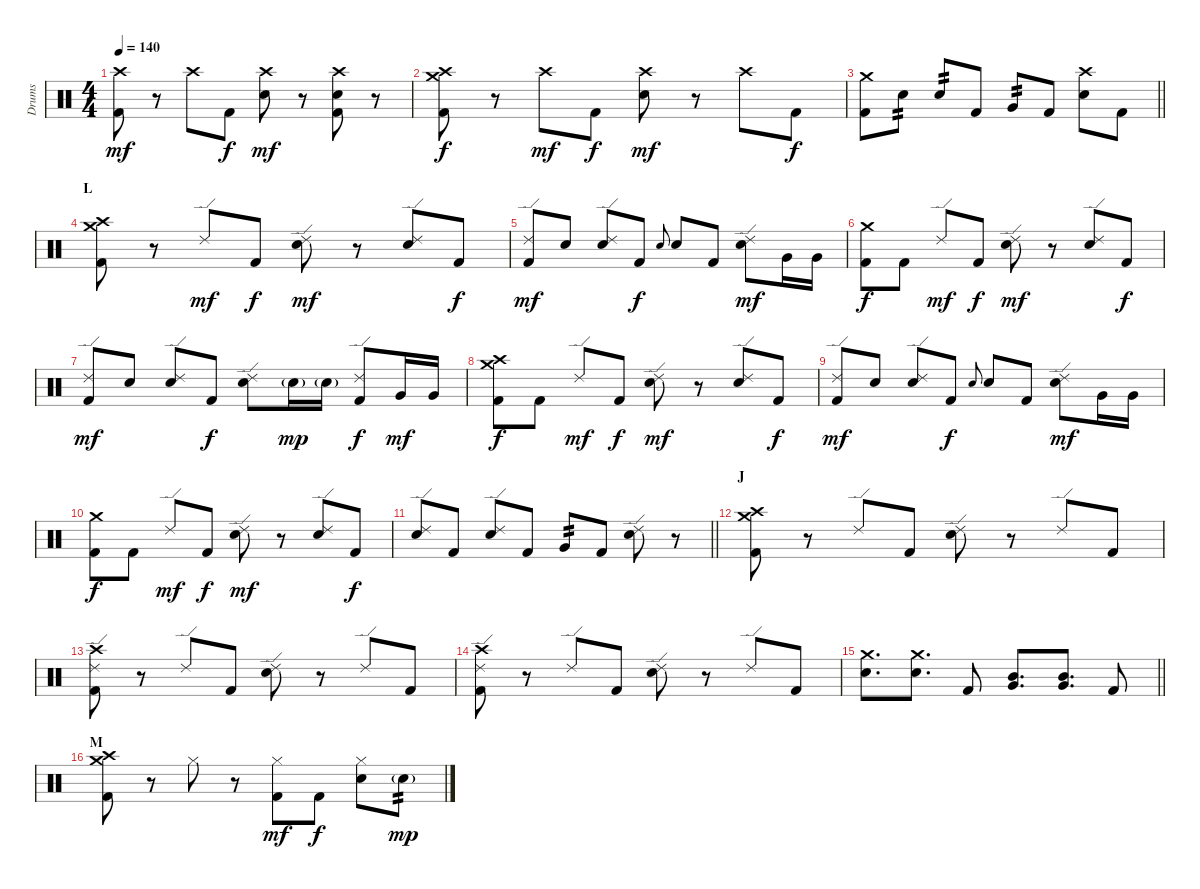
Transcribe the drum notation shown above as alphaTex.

\track ("Drums" "Drums") {instrument percussion}
\staff {score}
\articulation defaults
\ts (4 4)
\tempo 140
\clef neutral
\ks c
("Crash high (hit)" "Kick (hit) 2").8{dy mf} r.8 "Crash high (hit)".8 "Kick (hit) 2".8{dy f} ("Crash high (hit)" "Snare (hit) 2").8{dy mf} r.8 ("Crash high (hit)" "Snare (hit) 2" "Kick (hit) 2").8 r.8 |
("Crash high (hit)" "Crash medium (hit)" "Kick (hit) 2").8{dy f} r.8 "Crash high (hit)".8{dy mf} "Kick (hit) 2".8{dy f} ("Crash high (hit)" "Snare (hit) 2").8{dy mf} r.8 "Crash high (hit)".8 "Kick (hit) 2".8{dy f} |
\barLineRight lightlight
("Crash medium (hit)" "Kick (hit) 2").8 "Snare (hit) 2".8{tp 2} "Snare (hit) 2".8{tp 2} "Kick (hit) 2".8 "Very Low Tom (hit)".8{tp 2} "Kick (hit) 2".8 ("Crash high (hit)" "Snare (hit) 2").8 "Kick (hit) 2".8 |
\section ("" "L")
("Crash medium (hit)" "Crash high (hit)" "Kick (hit) 2").8 r.8 "Ride (edge) 2".8{dy mf} "Kick (hit) 2".8{dy f} ("Ride (edge) 2" "Snare (hit) 2").8{dy mf} r.8 ("Ride (edge) 2" "Snare (hit) 2").8 "Kick (hit) 2".8{dy f} |
("Ride (edge) 2" "Kick (hit) 2").8{dy mf} "Snare (hit) 2".8 ("Ride (edge) 2" "Snare (hit) 2").8 "Kick (hit) 2".8{dy f} "Snare (hit) 2".8{gr onbeat} "Snare (hit) 2".8 "Kick (hit) 2".8 ("Ride (edge) 2" "Snare (hit) 2").8{dy mf} "Very Low Tom (hit)".16 "Very Low Tom (hit)".16 |
("Crash medium (hit)" "Kick (hit) 2").8{dy f} "Kick (hit) 2".8 "Ride (edge) 2".8{dy mf} "Kick (hit) 2".8{dy f} ("Ride (edge) 2" "Snare (hit) 2").8{dy mf} r.8 ("Ride (edge) 2" "Snare (hit) 2").8 "Kick (hit) 2".8{dy f} |
("Ride (edge) 2" "Kick (hit) 2").8{dy mf} "Snare (hit) 2".8 ("Ride (edge) 2" "Snare (hit) 2").8 "Kick (hit) 2".8{dy f} ("Ride (edge) 2" "Snare (hit) 2").8 "Snare (hit) 2"{g}.16{dy mp} "Snare (hit) 2"{g}.16 ("Ride (edge) 2" "Kick (hit) 2").8{dy f} "Very Low Tom (hit)".16{dy mf} "Very Low Tom (hit)".16 |
("Crash medium (hit)" "Crash high (hit)" "Kick (hit) 2").8{dy f} "Kick (hit) 2".8 "Ride (edge) 2".8{dy mf} "Kick (hit) 2".8{dy f} ("Ride (edge) 2" "Snare (hit) 2").8{dy mf} r.8 ("Ride (edge) 2" "Snare (hit) 2").8 "Kick (hit) 2".8{dy f} |
("Ride (edge) 2" "Kick (hit) 2").8{dy mf} "Snare (hit) 2".8 ("Ride (edge) 2" "Snare (hit) 2").8 "Kick (hit) 2".8{dy f} "Snare (hit) 2".8{gr onbeat} "Snare (hit) 2".8 "Kick (hit) 2".8 ("Ride (edge) 2" "Snare (hit) 2").8{dy mf} "Very Low Tom (hit)".16 "Very Low Tom (hit)".16 |
("Crash medium (hit)" "Kick (hit) 2").8{dy f} "Kick (hit) 2".8 "Ride (edge) 2".8{dy mf} "Kick (hit) 2".8{dy f} ("Ride (edge) 2" "Snare (hit) 2").8{dy mf} r.8 ("Ride (edge) 2" "Snare (hit) 2").8 "Kick (hit) 2".8{dy f} |
\barLineRight lightlight
("Ride (edge) 2" "Snare (hit) 2").8 "Kick (hit) 2".8 ("Ride (edge) 2" "Snare (hit) 2").8 "Kick (hit) 2".8 "Very Low Tom (hit)".8{tp 2} "Kick (hit) 2".8 ("Ride (edge) 2" "Snare (hit) 2").8 r.8 |
\section ("" "J")
("Crash medium (hit)" "Crash high (hit)" "Kick (hit) 2").8 r.8 "Ride (edge) 2".8 "Kick (hit) 2".8 ("Ride (edge) 2" "Snare (hit) 2").8 r.8 "Ride (edge) 2".8 "Kick (hit) 2".8 |
("Ride (edge) 2" "Crash high (hit)" "Kick (hit) 2").8 r.8 "Ride (edge) 2".8 "Kick (hit) 2".8 ("Ride (edge) 2" "Snare (hit) 2").8 r.8 "Ride (edge) 2".8 "Kick (hit) 2".8 |
("Ride (edge) 2" "Crash high (hit)" "Kick (hit) 2").8 r.8 "Ride (edge) 2".8 "Kick (hit) 2".8 ("Ride (edge) 2" "Snare (hit) 2").8 r.8 "Ride (edge) 2".8 "Kick (hit) 2".8 |
\barLineRight lightlight
("Crash medium (hit)" "Snare (hit) 2").8{d} ("Crash medium (hit)" "Snare (hit) 2").8{d} "Kick (hit) 2".8 ("Mid Tom (hit)" "Very Low Tom (hit)").8{d bu 60} ("Mid Tom (hit)" "Very Low Tom (hit)").8{d bu 60} "Kick (hit) 2".8 |
\section ("" "M")
("Crash high (hit)" "Crash medium (hit)" "Kick (hit) 2").8 r.8 "Hi-Hat (closed)".8 r.8 ("Hi-Hat (closed)" "Kick (hit) 2").8{dy mf} "Kick (hit) 2".8{dy f} ("Hi-Hat (closed)" "Snare (hit) 2").8 "Snare (hit) 2"{g}.8{tp 2 dy mp}
